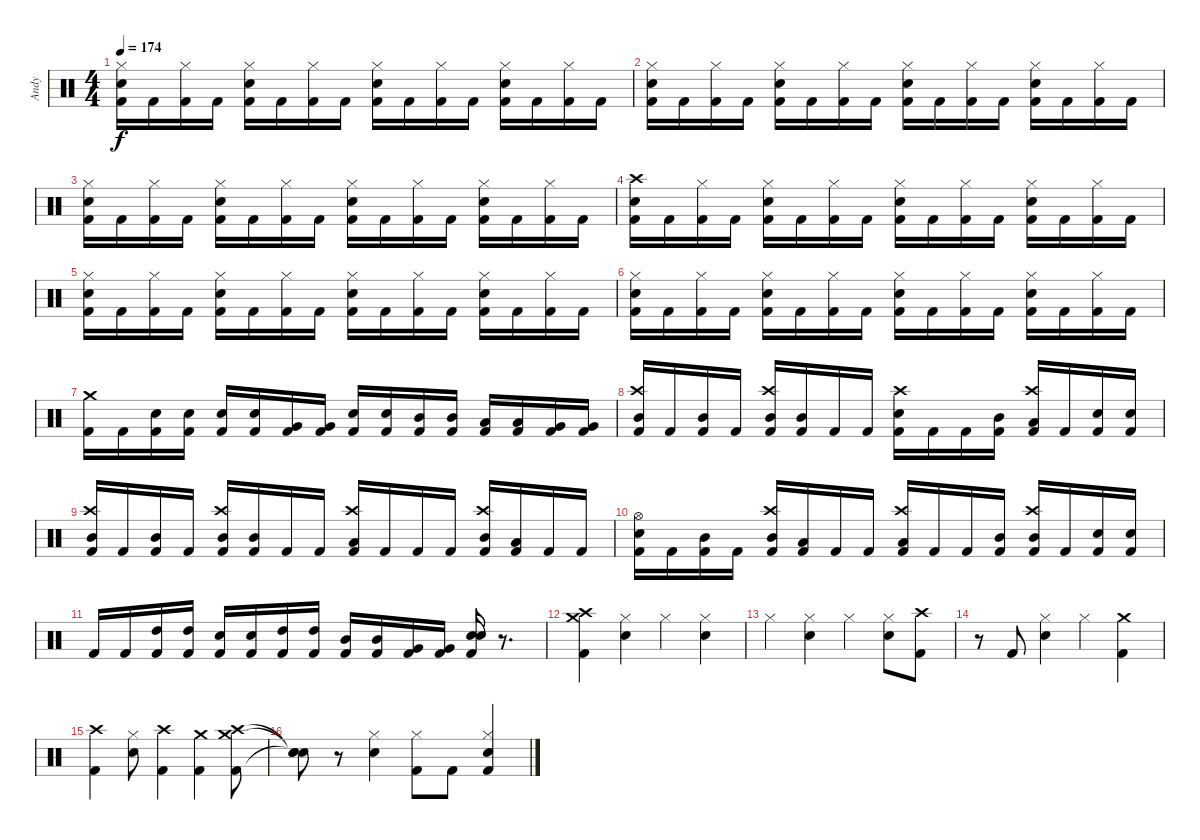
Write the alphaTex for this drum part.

\track ("Andy" "Andy") {instrument percussion}
\staff {score}
\articulation defaults
\ts (4 4)
\tempo 174
\clef neutral
\ks c
("Electric Snare (hit)" "Hi-Hat (closed)" "Kick (hit) 2").16{dy f} "Kick (hit) 2".16 ("Hi-Hat (closed)" "Kick (hit) 2").16 "Kick (hit) 2".16 ("Electric Snare (hit)" "Hi-Hat (closed)" "Kick (hit) 2").16 "Kick (hit) 2".16 ("Hi-Hat (closed)" "Kick (hit) 2").16 "Kick (hit) 2".16 ("Electric Snare (hit)" "Hi-Hat (closed)" "Kick (hit) 2").16 "Kick (hit) 2".16 ("Hi-Hat (closed)" "Kick (hit) 2").16 "Kick (hit) 2".16 ("Electric Snare (hit)" "Hi-Hat (closed)" "Kick (hit) 2").16 "Kick (hit) 2".16 ("Hi-Hat (closed)" "Kick (hit) 2").16 "Kick (hit) 2".16 |
("Electric Snare (hit)" "Hi-Hat (closed)" "Kick (hit) 2").16 "Kick (hit) 2".16 ("Hi-Hat (closed)" "Kick (hit) 2").16 "Kick (hit) 2".16 ("Electric Snare (hit)" "Hi-Hat (closed)" "Kick (hit) 2").16 "Kick (hit) 2".16 ("Hi-Hat (closed)" "Kick (hit) 2").16 "Kick (hit) 2".16 ("Electric Snare (hit)" "Hi-Hat (closed)" "Kick (hit) 2").16 "Kick (hit) 2".16 ("Hi-Hat (closed)" "Kick (hit) 2").16 "Kick (hit) 2".16 ("Electric Snare (hit)" "Hi-Hat (closed)" "Kick (hit) 2").16 "Kick (hit) 2".16 ("Hi-Hat (closed)" "Kick (hit) 2").16 "Kick (hit) 2".16 |
("Electric Snare (hit)" "Hi-Hat (closed)" "Kick (hit) 2").16 "Kick (hit) 2".16 ("Hi-Hat (closed)" "Kick (hit) 2").16 "Kick (hit) 2".16 ("Electric Snare (hit)" "Hi-Hat (closed)" "Kick (hit) 2").16 "Kick (hit) 2".16 ("Hi-Hat (closed)" "Kick (hit) 2").16 "Kick (hit) 2".16 ("Electric Snare (hit)" "Hi-Hat (closed)" "Kick (hit) 2").16 "Kick (hit) 2".16 ("Hi-Hat (closed)" "Kick (hit) 2").16 "Kick (hit) 2".16 ("Electric Snare (hit)" "Hi-Hat (closed)" "Kick (hit) 2").16 "Kick (hit) 2".16 ("Hi-Hat (closed)" "Kick (hit) 2").16 "Kick (hit) 2".16 |
("Electric Snare (hit)" "Crash high (hit)" "Kick (hit) 2").16 "Kick (hit) 2".16 ("Hi-Hat (closed)" "Kick (hit) 2").16 "Kick (hit) 2".16 ("Electric Snare (hit)" "Hi-Hat (closed)" "Kick (hit) 2").16 "Kick (hit) 2".16 ("Hi-Hat (closed)" "Kick (hit) 2").16 "Kick (hit) 2".16 ("Electric Snare (hit)" "Hi-Hat (closed)" "Kick (hit) 2").16 "Kick (hit) 2".16 ("Hi-Hat (closed)" "Kick (hit) 2").16 "Kick (hit) 2".16 ("Electric Snare (hit)" "Hi-Hat (closed)" "Kick (hit) 2").16 "Kick (hit) 2".16 ("Hi-Hat (closed)" "Kick (hit) 2").16 "Kick (hit) 2".16 |
("Electric Snare (hit)" "Hi-Hat (closed)" "Kick (hit) 2").16 "Kick (hit) 2".16 ("Hi-Hat (closed)" "Kick (hit) 2").16 "Kick (hit) 2".16 ("Electric Snare (hit)" "Hi-Hat (closed)" "Kick (hit) 2").16 "Kick (hit) 2".16 ("Hi-Hat (closed)" "Kick (hit) 2").16 "Kick (hit) 2".16 ("Electric Snare (hit)" "Hi-Hat (closed)" "Kick (hit) 2").16 "Kick (hit) 2".16 ("Hi-Hat (closed)" "Kick (hit) 2").16 "Kick (hit) 2".16 ("Electric Snare (hit)" "Hi-Hat (closed)" "Kick (hit) 2").16 "Kick (hit) 2".16 ("Hi-Hat (closed)" "Kick (hit) 2").16 "Kick (hit) 2".16 |
("Electric Snare (hit)" "Hi-Hat (closed)" "Kick (hit) 2").16 "Kick (hit) 2".16 ("Hi-Hat (closed)" "Kick (hit) 2").16 "Kick (hit) 2".16 ("Electric Snare (hit)" "Hi-Hat (closed)" "Kick (hit) 2").16 "Kick (hit) 2".16 ("Hi-Hat (closed)" "Kick (hit) 2").16 "Kick (hit) 2".16 ("Electric Snare (hit)" "Hi-Hat (closed)" "Kick (hit) 2").16 "Kick (hit) 2".16 ("Hi-Hat (closed)" "Kick (hit) 2").16 "Kick (hit) 2".16 ("Electric Snare (hit)" "Hi-Hat (closed)" "Kick (hit) 2").16 "Kick (hit) 2".16 ("Hi-Hat (closed)" "Kick (hit) 2").16 "Kick (hit) 2".16 |
("Crash medium (hit)" "Kick (hit) 2").16 "Kick (hit) 2".16 ("Electric Snare (hit)" "Kick (hit) 2").16 ("Electric Snare (hit)" "Kick (hit) 2").16 ("Electric Snare (hit)" "Kick (hit) 2").16 ("Electric Snare (hit)" "Kick (hit) 2").16 ("Very Low Tom (hit)" "Kick (hit) 2").16 ("Very Low Tom (hit)" "Kick (hit) 2").16 ("Electric Snare (hit)" "Kick (hit) 2").16 ("Electric Snare (hit)" "Kick (hit) 2").16 ("Mid Tom (hit)" "Kick (hit) 2").16 ("Mid Tom (hit)" "Kick (hit) 2").16 ("Low Tom (hit)" "Kick (hit) 2").16 ("Low Tom (hit)" "Kick (hit) 2").16 ("Very Low Tom (hit)" "Kick (hit) 2").16 ("Very Low Tom (hit)" "Kick (hit) 2").16 |
("Mid Tom (hit)" "Crash high (hit)" "Kick (hit) 2").16 "Kick (hit) 2".16 ("Mid Tom (hit)" "Kick (hit) 2").16 "Kick (hit) 2".16 ("Mid Tom (hit)" "Crash high (hit)" "Kick (hit) 2").16 ("Mid Tom (hit)" "Kick (hit) 2").16 "Kick (hit) 2".16 "Kick (hit) 2".16 ("Electric Snare (hit)" "Crash high (hit)" "Kick (hit) 2").16 "Kick (hit) 2".16 "Kick (hit) 2".16 ("Mid Tom (hit)" "Kick (hit) 2").16 ("Low Tom (hit)" "Crash high (hit)" "Kick (hit) 2").16 "Kick (hit) 2".16 ("Electric Snare (hit)" "Kick (hit) 2").16 ("Electric Snare (hit)" "Kick (hit) 2").16 |
("Mid Tom (hit)" "Crash high (hit)" "Kick (hit) 2").16 "Kick (hit) 2".16 ("Mid Tom (hit)" "Kick (hit) 2").16 "Kick (hit) 2".16 ("Mid Tom (hit)" "Crash high (hit)" "Kick (hit) 2").16 ("Mid Tom (hit)" "Kick (hit) 2").16 "Kick (hit) 2".16 "Kick (hit) 2".16 ("Low Tom (hit)" "Crash high (hit)" "Kick (hit) 2").16 "Kick (hit) 2".16 "Kick (hit) 2".16 "Kick (hit) 2".16 ("Mid Tom (hit)" "Crash high (hit)" "Kick (hit) 2").16 ("Low Tom (hit)" "Kick (hit) 2").16 "Kick (hit) 2".16 "Kick (hit) 2".16 |
("Electric Snare (hit)" "Hi-Hat (open)" "Kick (hit) 2").16 "Kick (hit) 2".16 ("Mid Tom (hit)" "Kick (hit) 2").16 "Kick (hit) 2".16 ("Mid Tom (hit)" "Crash high (hit)" "Kick (hit) 2").16 ("Low Tom (hit)" "Kick (hit) 2").16 "Kick (hit) 2".16 "Kick (hit) 2".16 ("Low Tom (hit)" "Crash high (hit)" "Kick (hit) 2").16 "Kick (hit) 2".16 "Kick (hit) 2".16 ("Mid Tom (hit)" "Kick (hit) 2").16 ("Mid Tom (hit)" "Crash high (hit)" "Kick (hit) 2").16 "Kick (hit) 2".16 ("Electric Snare (hit)" "Kick (hit) 2").16 ("Electric Snare (hit)" "Kick (hit) 2").16 |
"Kick (hit) 2".16 "Kick (hit) 2".16 ("High Tom (hit)" "Kick (hit) 2").16 ("High Tom (hit)" "Kick (hit) 2").16 ("Electric Snare (hit)" "Kick (hit) 2").16 ("Electric Snare (hit)" "Kick (hit) 2").16 ("High Tom (hit)" "Kick (hit) 2").16 ("High Tom (hit)" "Kick (hit) 2").16 ("Mid Tom (hit)" "Kick (hit) 2").16 ("Mid Tom (hit)" "Kick (hit) 2").16 ("Very Low Tom (hit)" "Kick (hit) 2").16 ("Very Low Tom (hit)" "Kick (hit) 2").16 ("Electric Snare (hit)" "Electric Snare (hit)" "Kick (hit) 2").16 r.8{d} |
("Crash medium (hit)" "Crash high (hit)" "Kick (hit) 2").4 ("Electric Snare (hit)" "Hi-Hat (closed)").4 "Hi-Hat (closed)".4 ("Electric Snare (hit)" "Hi-Hat (closed)").4 |
"Hi-Hat (closed)".4 ("Electric Snare (hit)" "Hi-Hat (closed)").4 "Hi-Hat (closed)".4 ("Electric Snare (hit)" "Hi-Hat (closed)").8 ("Crash high (hit)" "Kick (hit) 2").8 |
r.8 "Kick (hit) 2".8 ("Electric Snare (hit)" "Hi-Hat (closed)").4 "Hi-Hat (closed)".4 ("Crash medium (hit)" "Kick (hit) 2").4 |
("Crash high (hit)" "Kick (hit) 2").4 ("Electric Snare (hit)" "Hi-Hat (closed)").8 ("Crash high (hit)" "Kick (hit) 2").4 ("Crash medium (hit)" "Kick (hit) 2").4 ("Crash medium (hit)" "Crash high (hit)" "Kick (hit) 2").8 |
("Snare (hit)"{t} "Snare (hit)"{t} "Snare (hit)"{t}).8 r.8 ("Electric Snare (hit)" "Hi-Hat (closed)").4 ("Hi-Hat (closed)" "Kick (hit) 2").8 "Kick (hit) 2".8 ("Electric Snare (hit)" "Hi-Hat (closed)" "Kick (hit) 2").4
